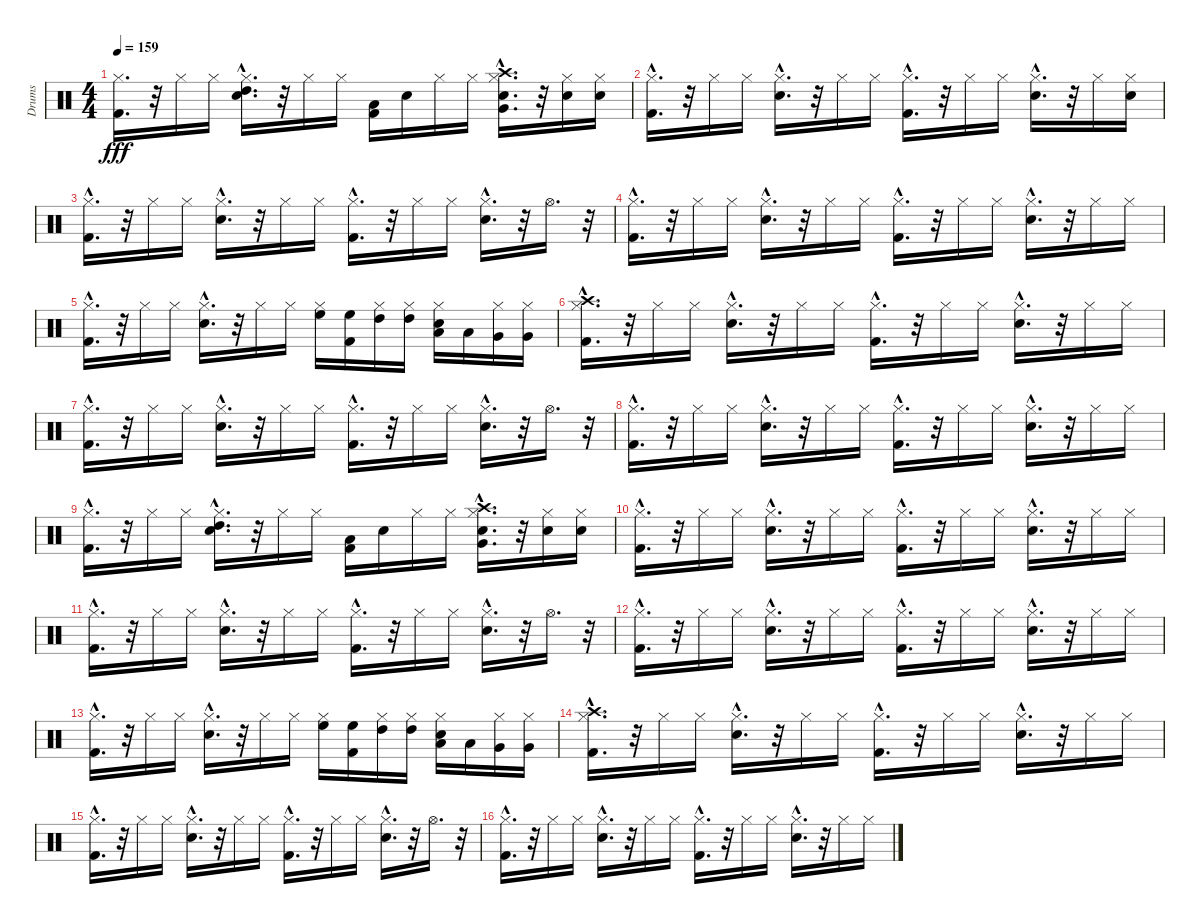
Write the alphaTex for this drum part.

\track ("Drums" "Drums") {instrument percussion}
\staff {score}
\articulation defaults
\ts (4 4)
\tempo 159
\clef neutral
\ks c
("Hi-Hat (closed)" "Kick (hit) 2").16{d dy fff} r.32 "Hi-Hat (closed)".16 "Hi-Hat (closed)".16 ("Electric Snare (hit)"{hac} "High Tom (hit)"{hac} "Hi-Hat (closed)"{hac}).16{d} r.32 "Hi-Hat (closed)".16 "Hi-Hat (closed)".16 ("Low Tom (hit)" "Kick (hit) 2").16 "Electric Snare (hit)".16 "Hi-Hat (closed)".16 "Hi-Hat (closed)".16 ("Crash high (hit)"{hac} "Very Low Tom (hit)"{hac} "Hi-Hat (closed)"{hac} "Electric Snare (hit)"{hac}).16{d} r.32 ("Hi-Hat (closed)" "Electric Snare (hit)").16 ("Hi-Hat (closed)" "Electric Snare (hit)").16 |
("Hi-Hat (closed)"{hac} "Kick (hit) 2"{hac}).16{d} r.32 "Hi-Hat (closed)".16 "Hi-Hat (closed)".16 ("Hi-Hat (closed)"{hac} "Electric Snare (hit)"{hac}).16{d} r.32 "Hi-Hat (closed)".16 "Hi-Hat (closed)".16 ("Hi-Hat (closed)"{hac} "Kick (hit) 2"{hac}).16{d} r.32 "Hi-Hat (closed)".16 "Hi-Hat (closed)".16 ("Hi-Hat (closed)"{hac} "Electric Snare (hit)"{hac}).16{d} r.32 "Hi-Hat (closed)".16 ("Electric Snare (hit)" "Hi-Hat (closed)").16 |
("Hi-Hat (closed)"{hac} "Kick (hit) 2"{hac}).16{d} r.32 "Hi-Hat (closed)".16 "Hi-Hat (closed)".16 ("Electric Snare (hit)"{hac} "Hi-Hat (closed)"{hac}).16{d} r.32 "Hi-Hat (closed)".16 "Hi-Hat (closed)".16 ("Hi-Hat (closed)"{hac} "Kick (hit) 2"{hac}).16{d} r.32 "Hi-Hat (closed)".16 "Hi-Hat (closed)".16 ("Hi-Hat (closed)"{hac} "Electric Snare (hit)"{hac}).16{d} r.32 "Hi-Hat (open)".16{d} r.32 |
("Hi-Hat (closed)"{hac} "Kick (hit) 2"{hac}).16{d} r.32 "Hi-Hat (closed)".16 "Hi-Hat (closed)".16 ("Hi-Hat (closed)"{hac} "Electric Snare (hit)"{hac}).16{d} r.32 "Hi-Hat (closed)".16 "Hi-Hat (closed)".16 ("Hi-Hat (closed)"{hac} "Kick (hit) 2"{hac}).16{d} r.32 "Hi-Hat (closed)".16 "Hi-Hat (closed)".16 ("Hi-Hat (closed)"{hac} "Electric Snare (hit)"{hac}).16{d} r.32 "Hi-Hat (closed)".16 "Hi-Hat (closed)".16 |
("Hi-Hat (closed)"{hac} "Kick (hit) 2"{hac}).16{d} r.32 "Hi-Hat (closed)".16 "Hi-Hat (closed)".16 ("Hi-Hat (closed)"{hac} "Electric Snare (hit)"{hac}).16{d} r.32 "Hi-Hat (closed)".16 "Hi-Hat (closed)".16 ("Hi-Hat (closed)" "High Floor Tom (hit)").16 ("Kick (hit) 2" "High Floor Tom (hit)").16 ("Hi-Hat (closed)" "High Tom (hit)").16 ("Hi-Hat (closed)" "High Tom (hit)").16 ("Electric Snare (hit)" "Low Tom (hit)" "Hi-Hat (closed)").16 "Low Tom (hit)".16 ("Very Low Tom (hit)" "Hi-Hat (closed)").16 ("Very Low Tom (hit)" "Hi-Hat (closed)").16 |
("Crash high (hit)"{hac} "Hi-Hat (closed)"{hac} "Kick (hit) 2"{hac}).16{d} r.32 "Hi-Hat (closed)".16 "Hi-Hat (closed)".16 ("Hi-Hat (closed)"{hac} "Electric Snare (hit)"{hac}).16{d} r.32 "Hi-Hat (closed)".16 "Hi-Hat (closed)".16 ("Hi-Hat (closed)"{hac} "Kick (hit) 2"{hac}).16{d} r.32 "Hi-Hat (closed)".16 "Hi-Hat (closed)".16 ("Hi-Hat (closed)"{hac} "Electric Snare (hit)"{hac}).16{d} r.32 "Hi-Hat (closed)".16 "Hi-Hat (closed)".16 |
("Hi-Hat (closed)"{hac} "Kick (hit) 2"{hac}).16{d} r.32 "Hi-Hat (closed)".16 "Hi-Hat (closed)".16 ("Hi-Hat (closed)"{hac} "Electric Snare (hit)"{hac}).16{d} r.32 "Hi-Hat (closed)".16 "Hi-Hat (closed)".16 ("Hi-Hat (closed)"{hac} "Kick (hit) 2"{hac}).16{d} r.32 "Hi-Hat (closed)".16 "Hi-Hat (closed)".16 ("Hi-Hat (closed)"{hac} "Electric Snare (hit)"{hac}).16{d} r.32 "Hi-Hat (open)".16{d} r.32 |
("Hi-Hat (closed)"{hac} "Kick (hit) 2"{hac}).16{d} r.32 "Hi-Hat (closed)".16 "Hi-Hat (closed)".16 ("Hi-Hat (closed)"{hac} "Electric Snare (hit)"{hac}).16{d} r.32 "Hi-Hat (closed)".16 "Hi-Hat (closed)".16 ("Hi-Hat (closed)"{hac} "Kick (hit) 2"{hac}).16{d} r.32 "Hi-Hat (closed)".16 "Hi-Hat (closed)".16 ("Hi-Hat (closed)"{hac} "Electric Snare (hit)"{hac}).16{d} r.32 "Hi-Hat (closed)".16 "Hi-Hat (closed)".16 |
("Hi-Hat (closed)"{hac} "Kick (hit) 2"{hac}).16{d} r.32 "Hi-Hat (closed)".16 "Hi-Hat (closed)".16 ("Hi-Hat (closed)"{hac} "High Tom (hit)"{hac} "Electric Snare (hit)"{hac}).16{d} r.32 "Hi-Hat (closed)".16 "Hi-Hat (closed)".16 ("Kick (hit) 2" "Low Tom (hit)").16 "Electric Snare (hit)".16 "Hi-Hat (closed)".16 "Hi-Hat (closed)".16 ("Electric Snare (hit)"{hac} "Hi-Hat (closed)"{hac} "Very Low Tom (hit)"{hac} "Crash high (hit)"{hac}).16{d} r.32 ("Electric Snare (hit)" "Hi-Hat (closed)").16 ("Electric Snare (hit)" "Hi-Hat (closed)").16 |
("Hi-Hat (closed)"{hac} "Kick (hit) 2"{hac}).16{d} r.32 "Hi-Hat (closed)".16 "Hi-Hat (closed)".16 ("Hi-Hat (closed)"{hac} "Electric Snare (hit)"{hac}).16{d} r.32 "Hi-Hat (closed)".16 "Hi-Hat (closed)".16 ("Hi-Hat (closed)"{hac} "Kick (hit) 2"{hac}).16{d} r.32 "Hi-Hat (closed)".16 "Hi-Hat (closed)".16 ("Hi-Hat (closed)"{hac} "Electric Snare (hit)"{hac}).16{d} r.32 "Hi-Hat (closed)".16 "Hi-Hat (closed)".16 |
("Hi-Hat (closed)"{hac} "Kick (hit) 2"{hac}).16{d} r.32 "Hi-Hat (closed)".16 "Hi-Hat (closed)".16 ("Hi-Hat (closed)"{hac} "Electric Snare (hit)"{hac}).16{d} r.32 "Hi-Hat (closed)".16 "Hi-Hat (closed)".16 ("Hi-Hat (closed)"{hac} "Kick (hit) 2"{hac}).16{d} r.32 "Hi-Hat (closed)".16 "Hi-Hat (closed)".16 ("Hi-Hat (closed)"{hac} "Electric Snare (hit)"{hac}).16{d} r.32 "Hi-Hat (open)".16{d} r.32 |
("Hi-Hat (closed)"{hac} "Kick (hit) 2"{hac}).16{d} r.32 "Hi-Hat (closed)".16 "Hi-Hat (closed)".16 ("Hi-Hat (closed)"{hac} "Electric Snare (hit)"{hac}).16{d} r.32 "Hi-Hat (closed)".16 "Hi-Hat (closed)".16 ("Hi-Hat (closed)"{hac} "Kick (hit) 2"{hac}).16{d} r.32 "Hi-Hat (closed)".16 "Hi-Hat (closed)".16 ("Hi-Hat (closed)"{hac} "Electric Snare (hit)"{hac}).16{d} r.32 "Hi-Hat (closed)".16 "Hi-Hat (closed)".16 |
("Kick (hit) 2"{hac} "Hi-Hat (closed)"{hac}).16{d} r.32 "Hi-Hat (closed)".16 "Hi-Hat (closed)".16 ("Electric Snare (hit)"{hac} "Hi-Hat (closed)"{hac}).16{d} r.32 "Hi-Hat (closed)".16 "Hi-Hat (closed)".16 ("High Floor Tom (hit)" "Hi-Hat (closed)").16 ("High Floor Tom (hit)" "Kick (hit) 2").16 ("High Tom (hit)" "Hi-Hat (closed)").16 ("High Tom (hit)" "Hi-Hat (closed)").16 ("Hi-Hat (closed)" "Low Tom (hit)" "Electric Snare (hit)").16 "Low Tom (hit)".16 ("Hi-Hat (closed)" "Very Low Tom (hit)").16 ("Hi-Hat (closed)" "Very Low Tom (hit)").16 |
("Crash high (hit)"{hac} "Hi-Hat (closed)"{hac} "Kick (hit) 2"{hac}).16{d} r.32 "Hi-Hat (closed)".16 "Hi-Hat (closed)".16 ("Hi-Hat (closed)"{hac} "Electric Snare (hit)"{hac}).16{d} r.32 "Hi-Hat (closed)".16 "Hi-Hat (closed)".16 ("Hi-Hat (closed)"{hac} "Kick (hit) 2"{hac}).16{d} r.32 "Hi-Hat (closed)".16 "Hi-Hat (closed)".16 ("Hi-Hat (closed)"{hac} "Electric Snare (hit)"{hac}).16{d} r.32 "Hi-Hat (closed)".16 "Hi-Hat (closed)".16 |
("Hi-Hat (closed)"{hac} "Kick (hit) 2"{hac}).16{d} r.32 "Hi-Hat (closed)".16 "Hi-Hat (closed)".16 ("Hi-Hat (closed)"{hac} "Electric Snare (hit)"{hac}).16{d} r.32 "Hi-Hat (closed)".16 "Hi-Hat (closed)".16 ("Hi-Hat (closed)"{hac} "Kick (hit) 2"{hac}).16{d} r.32 "Hi-Hat (closed)".16 "Hi-Hat (closed)".16 ("Hi-Hat (closed)"{hac} "Electric Snare (hit)"{hac}).16{d} r.32 "Hi-Hat (open)".16{d} r.32 |
("Hi-Hat (closed)"{hac} "Kick (hit) 2"{hac}).16{d} r.32 "Hi-Hat (closed)".16 "Hi-Hat (closed)".16 ("Hi-Hat (closed)"{hac} "Electric Snare (hit)"{hac}).16{d} r.32 "Hi-Hat (closed)".16 "Hi-Hat (closed)".16 ("Hi-Hat (closed)"{hac} "Kick (hit) 2"{hac}).16{d} r.32 "Hi-Hat (closed)".16 "Hi-Hat (closed)".16 ("Hi-Hat (closed)"{hac} "Electric Snare (hit)"{hac}).16{d} r.32 "Hi-Hat (closed)".16 "Hi-Hat (closed)".16
